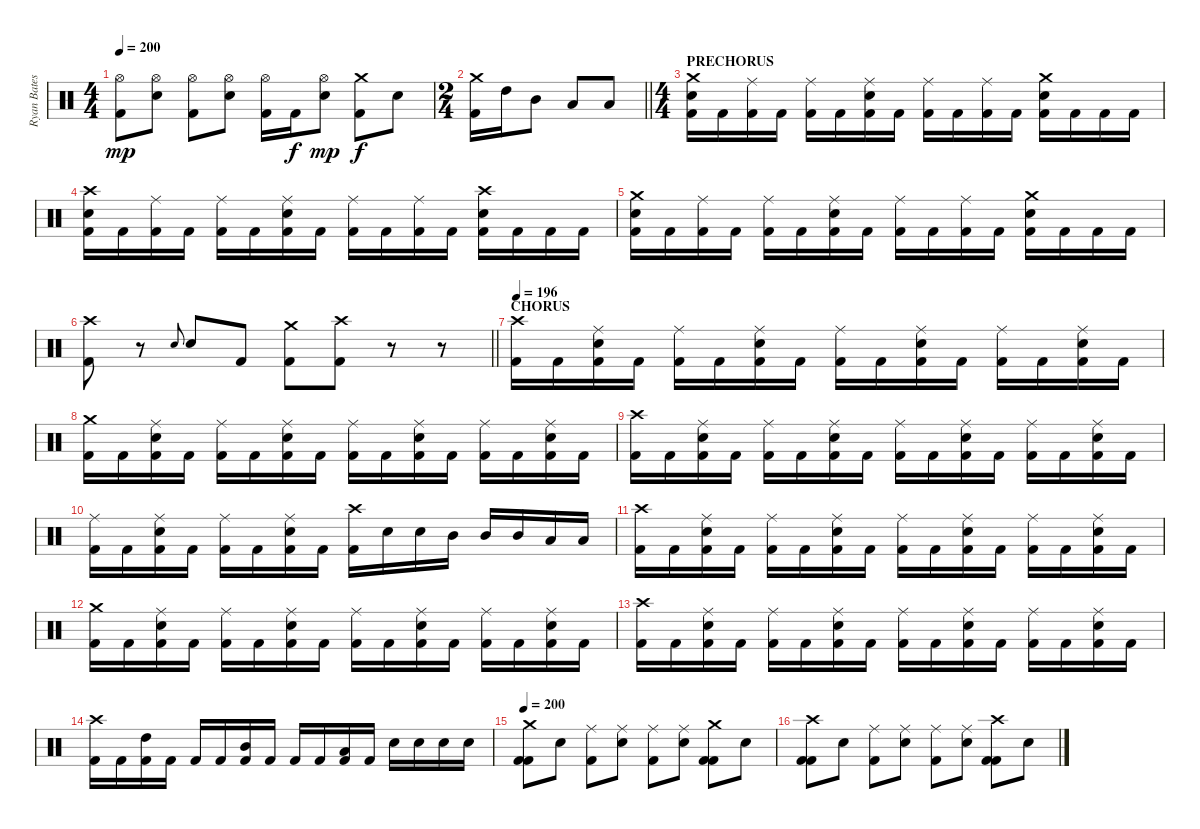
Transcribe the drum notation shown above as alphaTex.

\track ("Ryan Bates" "Ryan Bates") {instrument percussion}
\staff {score}
\articulation defaults
\ts (4 4)
\tempo 200
\clef neutral
\ks c
("Hi-Hat (open)" "Kick (hit) 2").8{dy mp} ("Hi-Hat (open)" "Electric Snare (hit)").8 ("Hi-Hat (open)" "Kick (hit) 2").8 ("Hi-Hat (open)" "Electric Snare (hit)").8 ("Hi-Hat (open)" "Kick (hit) 2").16 "Kick (hit) 2".16{dy f} ("Hi-Hat (open)" "Electric Snare (hit)").8{dy mp} ("Crash medium (hit)" "Kick (hit) 2").8{dy f} "Electric Snare (hit)".8 |
\ts (2 4)
\barLineRight lightlight
("Crash medium (hit)" "Kick (hit) 2").16 "High Tom (hit)".16 "Mid Tom (hit)".8 "Low Tom (hit)".8 "Low Tom (hit)".8 |
\ts (4 4)
\section ("" "PRECHORUS")
("Crash medium (hit)" "Electric Snare (hit)" "Kick (hit) 2").16 "Kick (hit) 2".16 ("Ride (middle)" "Kick (hit) 2").16 "Kick (hit) 2".16 ("Ride (middle)" "Kick (hit) 2").16 "Kick (hit) 2".16 ("Ride (middle)" "Electric Snare (hit)" "Kick (hit) 2").16 "Kick (hit) 2".16 ("Ride (middle)" "Kick (hit) 2").16 "Kick (hit) 2".16 ("Ride (middle)" "Kick (hit) 2").16 "Kick (hit) 2".16 ("Crash medium (hit)" "Electric Snare (hit)" "Kick (hit) 2").16 "Kick (hit) 2".16 "Kick (hit) 2".16 "Kick (hit) 2".16 |
("Crash high (hit)" "Electric Snare (hit)" "Kick (hit) 2").16 "Kick (hit) 2".16 ("Ride (middle)" "Kick (hit) 2").16 "Kick (hit) 2".16 ("Ride (middle)" "Kick (hit) 2").16 "Kick (hit) 2".16 ("Ride (middle)" "Electric Snare (hit)" "Kick (hit) 2").16 "Kick (hit) 2".16 ("Ride (middle)" "Kick (hit) 2").16 "Kick (hit) 2".16 ("Ride (middle)" "Kick (hit) 2").16 "Kick (hit) 2".16 ("Crash high (hit)" "Electric Snare (hit)" "Kick (hit) 2").16 "Kick (hit) 2".16 "Kick (hit) 2".16 "Kick (hit) 2".16 |
("Crash medium (hit)" "Electric Snare (hit)" "Kick (hit) 2").16 "Kick (hit) 2".16 ("Ride (middle)" "Kick (hit) 2").16 "Kick (hit) 2".16 ("Ride (middle)" "Kick (hit) 2").16 "Kick (hit) 2".16 ("Ride (middle)" "Electric Snare (hit)" "Kick (hit) 2").16 "Kick (hit) 2".16 ("Ride (middle)" "Kick (hit) 2").16 "Kick (hit) 2".16 ("Ride (middle)" "Kick (hit) 2").16 "Kick (hit) 2".16 ("Crash medium (hit)" "Electric Snare (hit)" "Kick (hit) 2").16 "Kick (hit) 2".16 "Kick (hit) 2".16 "Kick (hit) 2".16 |
\barLineRight lightlight
("Crash high (hit)" "Kick (hit) 2").8 r.8 "Electric Snare (hit)".8{gr onbeat} "Electric Snare (hit)".8 "Kick (hit) 2".8 ("Crash medium (hit)" "Kick (hit) 2").8 ("Crash high (hit)" "Kick (hit) 2").8 r.8 r.8 |
\section ("" "CHORUS")
\tempo 196
("Crash high (hit)" "Kick (hit) 2").16 "Kick (hit) 2".16 ("Ride (middle)" "Electric Snare (hit)" "Kick (hit) 2").16 "Kick (hit) 2".16 ("Ride (middle)" "Kick (hit) 2").16 "Kick (hit) 2".16 ("Ride (middle)" "Electric Snare (hit)" "Kick (hit) 2").16 "Kick (hit) 2".16 ("Ride (middle)" "Kick (hit) 2").16 "Kick (hit) 2".16 ("Ride (middle)" "Electric Snare (hit)" "Kick (hit) 2").16 "Kick (hit) 2".16 ("Ride (middle)" "Kick (hit) 2").16 "Kick (hit) 2".16 ("Ride (middle)" "Electric Snare (hit)" "Kick (hit) 2").16 "Kick (hit) 2".16 |
("Crash medium (hit)" "Kick (hit) 2").16 "Kick (hit) 2".16 ("Ride (middle)" "Electric Snare (hit)" "Kick (hit) 2").16 "Kick (hit) 2".16 ("Ride (middle)" "Kick (hit) 2").16 "Kick (hit) 2".16 ("Ride (middle)" "Electric Snare (hit)" "Kick (hit) 2").16 "Kick (hit) 2".16 ("Ride (middle)" "Kick (hit) 2").16 "Kick (hit) 2".16 ("Ride (middle)" "Electric Snare (hit)" "Kick (hit) 2").16 "Kick (hit) 2".16 ("Ride (middle)" "Kick (hit) 2").16 "Kick (hit) 2".16 ("Ride (middle)" "Electric Snare (hit)" "Kick (hit) 2").16 "Kick (hit) 2".16 |
("Crash high (hit)" "Kick (hit) 2").16 "Kick (hit) 2".16 ("Ride (middle)" "Electric Snare (hit)" "Kick (hit) 2").16 "Kick (hit) 2".16 ("Ride (middle)" "Kick (hit) 2").16 "Kick (hit) 2".16 ("Ride (middle)" "Electric Snare (hit)" "Kick (hit) 2").16 "Kick (hit) 2".16 ("Ride (middle)" "Kick (hit) 2").16 "Kick (hit) 2".16 ("Ride (middle)" "Electric Snare (hit)" "Kick (hit) 2").16 "Kick (hit) 2".16 ("Ride (middle)" "Kick (hit) 2").16 "Kick (hit) 2".16 ("Ride (middle)" "Electric Snare (hit)" "Kick (hit) 2").16 "Kick (hit) 2".16 |
("Ride (middle)" "Kick (hit) 2").16 "Kick (hit) 2".16 ("Ride (middle)" "Electric Snare (hit)" "Kick (hit) 2").16 "Kick (hit) 2".16 ("Ride (middle)" "Kick (hit) 2").16 "Kick (hit) 2".16 ("Ride (middle)" "Electric Snare (hit)" "Kick (hit) 2").16 "Kick (hit) 2".16 ("Crash high (hit)" "Kick (hit) 2").16 "Electric Snare (hit)".16 "Electric Snare (hit)".16 "Mid Tom (hit)".16 "Mid Tom (hit)".16 "Mid Tom (hit)".16 "Low Tom (hit)".16 "Low Tom (hit)".16 |
("Crash high (hit)" "Kick (hit) 2").16 "Kick (hit) 2".16 ("Ride (middle)" "Electric Snare (hit)" "Kick (hit) 2").16 "Kick (hit) 2".16 ("Ride (middle)" "Kick (hit) 2").16 "Kick (hit) 2".16 ("Ride (middle)" "Electric Snare (hit)" "Kick (hit) 2").16 "Kick (hit) 2".16 ("Ride (middle)" "Kick (hit) 2").16 "Kick (hit) 2".16 ("Ride (middle)" "Electric Snare (hit)" "Kick (hit) 2").16 "Kick (hit) 2".16 ("Ride (middle)" "Kick (hit) 2").16 "Kick (hit) 2".16 ("Ride (middle)" "Electric Snare (hit)" "Kick (hit) 2").16 "Kick (hit) 2".16 |
("Crash medium (hit)" "Kick (hit) 2").16 "Kick (hit) 2".16 ("Ride (middle)" "Electric Snare (hit)" "Kick (hit) 2").16 "Kick (hit) 2".16 ("Ride (middle)" "Kick (hit) 2").16 "Kick (hit) 2".16 ("Ride (middle)" "Electric Snare (hit)" "Kick (hit) 2").16 "Kick (hit) 2".16 ("Ride (middle)" "Kick (hit) 2").16 "Kick (hit) 2".16 ("Ride (middle)" "Electric Snare (hit)" "Kick (hit) 2").16 "Kick (hit) 2".16 ("Ride (middle)" "Kick (hit) 2").16 "Kick (hit) 2".16 ("Ride (middle)" "Electric Snare (hit)" "Kick (hit) 2").16 "Kick (hit) 2".16 |
("Crash high (hit)" "Kick (hit) 2").16 "Kick (hit) 2".16 ("Ride (middle)" "Electric Snare (hit)" "Kick (hit) 2").16 "Kick (hit) 2".16 ("Ride (middle)" "Kick (hit) 2").16 "Kick (hit) 2".16 ("Ride (middle)" "Electric Snare (hit)" "Kick (hit) 2").16 "Kick (hit) 2".16 ("Ride (middle)" "Kick (hit) 2").16 "Kick (hit) 2".16 ("Ride (middle)" "Electric Snare (hit)" "Kick (hit) 2").16 "Kick (hit) 2".16 ("Ride (middle)" "Kick (hit) 2").16 "Kick (hit) 2".16 ("Ride (middle)" "Electric Snare (hit)" "Kick (hit) 2").16 "Kick (hit) 2".16 |
("Crash high (hit)" "Kick (hit) 2").16 "Kick (hit) 2".16 ("High Tom (hit)" "Kick (hit) 2").16 "Kick (hit) 2".16 "Kick (hit) 2".16 "Kick (hit) 2".16 ("Mid Tom (hit)" "Kick (hit) 2").16 "Kick (hit) 2".16 "Kick (hit) 2".16 "Kick (hit) 2".16 ("Low Tom (hit)" "Kick (hit) 2").16 "Kick (hit) 2".16 "Electric Snare (hit)".16 "Electric Snare (hit)".16 "Electric Snare (hit)".16 "Electric Snare (hit)".16 |
\tempo 200
("Crash medium (hit)" "Kick (hit) 2" "Kick (hit) 2").8 "Electric Snare (hit)".8 ("Ride (middle)" "Kick (hit) 2").8 ("Ride (middle)" "Electric Snare (hit)").8 ("Ride (middle)" "Kick (hit) 2").8 ("Ride (middle)" "Electric Snare (hit)").8 ("Crash medium (hit)" "Kick (hit) 2" "Kick (hit) 2").8 "Electric Snare (hit)".8 |
("Crash high (hit)" "Kick (hit) 2" "Kick (hit) 2").8 "Electric Snare (hit)".8 ("Ride (middle)" "Kick (hit) 2").8 ("Ride (middle)" "Electric Snare (hit)").8 ("Ride (middle)" "Kick (hit) 2").8 ("Ride (middle)" "Electric Snare (hit)").8 ("Crash high (hit)" "Kick (hit) 2" "Kick (hit) 2").8 "Electric Snare (hit)".8
